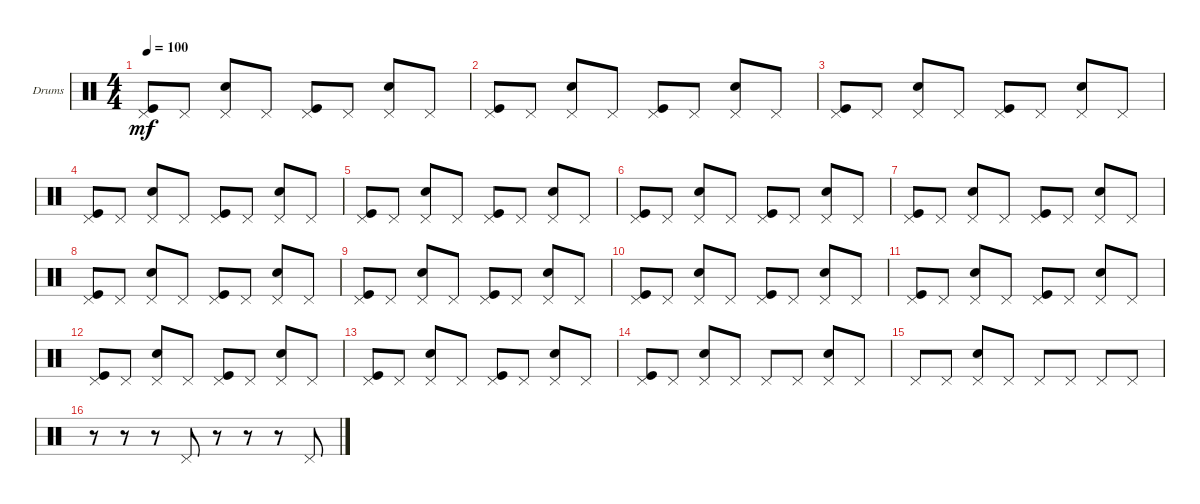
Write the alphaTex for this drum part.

\defaultSystemsLayout 4
\bracketExtendMode groupsimilarinstruments
\firstSystemTrackNameOrientation horizontal
\otherSystemsTrackNameOrientation horizontal
\track ("Drumkit" "Drums") {instrument percussion}
\staff {score}
\articulation defaults
\ts (4 4)
\tempo 100
\clef neutral
\ks c
("Pedal Hi-Hat (hit)" "Kick (hit)").8{dy mf} "Pedal Hi-Hat (hit)".8 ("Snare (hit) 2" "Pedal Hi-Hat (hit)").8 "Pedal Hi-Hat (hit)".8 ("Pedal Hi-Hat (hit)" "Kick (hit)").8 "Pedal Hi-Hat (hit)".8 ("Snare (hit) 2" "Pedal Hi-Hat (hit)").8 "Pedal Hi-Hat (hit)".8 |
("Pedal Hi-Hat (hit)" "Kick (hit)").8 "Pedal Hi-Hat (hit)".8 ("Snare (hit) 2" "Pedal Hi-Hat (hit)").8 "Pedal Hi-Hat (hit)".8 ("Pedal Hi-Hat (hit)" "Kick (hit)").8 "Pedal Hi-Hat (hit)".8 ("Snare (hit) 2" "Pedal Hi-Hat (hit)").8 "Pedal Hi-Hat (hit)".8 |
("Pedal Hi-Hat (hit)" "Kick (hit)").8 "Pedal Hi-Hat (hit)".8 ("Snare (hit) 2" "Pedal Hi-Hat (hit)").8 "Pedal Hi-Hat (hit)".8 ("Pedal Hi-Hat (hit)" "Kick (hit)").8 "Pedal Hi-Hat (hit)".8 ("Snare (hit) 2" "Pedal Hi-Hat (hit)").8 "Pedal Hi-Hat (hit)".8 |
("Pedal Hi-Hat (hit)" "Kick (hit)").8 "Pedal Hi-Hat (hit)".8 ("Snare (hit) 2" "Pedal Hi-Hat (hit)").8 "Pedal Hi-Hat (hit)".8 ("Pedal Hi-Hat (hit)" "Kick (hit)").8 "Pedal Hi-Hat (hit)".8 ("Snare (hit) 2" "Pedal Hi-Hat (hit)").8 "Pedal Hi-Hat (hit)".8 |
("Pedal Hi-Hat (hit)" "Kick (hit)").8 "Pedal Hi-Hat (hit)".8 ("Snare (hit) 2" "Pedal Hi-Hat (hit)").8 "Pedal Hi-Hat (hit)".8 ("Pedal Hi-Hat (hit)" "Kick (hit)").8 "Pedal Hi-Hat (hit)".8 ("Snare (hit) 2" "Pedal Hi-Hat (hit)").8 "Pedal Hi-Hat (hit)".8 |
("Pedal Hi-Hat (hit)" "Kick (hit)").8 "Pedal Hi-Hat (hit)".8 ("Snare (hit) 2" "Pedal Hi-Hat (hit)").8 "Pedal Hi-Hat (hit)".8 ("Pedal Hi-Hat (hit)" "Kick (hit)").8 "Pedal Hi-Hat (hit)".8 ("Snare (hit) 2" "Pedal Hi-Hat (hit)").8 "Pedal Hi-Hat (hit)".8 |
("Pedal Hi-Hat (hit)" "Kick (hit)").8 "Pedal Hi-Hat (hit)".8 ("Snare (hit) 2" "Pedal Hi-Hat (hit)").8 "Pedal Hi-Hat (hit)".8 ("Pedal Hi-Hat (hit)" "Kick (hit)").8 "Pedal Hi-Hat (hit)".8 ("Snare (hit) 2" "Pedal Hi-Hat (hit)").8 "Pedal Hi-Hat (hit)".8 |
("Pedal Hi-Hat (hit)" "Kick (hit)").8 "Pedal Hi-Hat (hit)".8 ("Snare (hit) 2" "Pedal Hi-Hat (hit)").8 "Pedal Hi-Hat (hit)".8 ("Pedal Hi-Hat (hit)" "Kick (hit)").8 "Pedal Hi-Hat (hit)".8 ("Snare (hit) 2" "Pedal Hi-Hat (hit)").8 "Pedal Hi-Hat (hit)".8 |
("Pedal Hi-Hat (hit)" "Kick (hit)").8 "Pedal Hi-Hat (hit)".8 ("Snare (hit) 2" "Pedal Hi-Hat (hit)").8 "Pedal Hi-Hat (hit)".8 ("Pedal Hi-Hat (hit)" "Kick (hit)").8 "Pedal Hi-Hat (hit)".8 ("Snare (hit) 2" "Pedal Hi-Hat (hit)").8 "Pedal Hi-Hat (hit)".8 |
("Pedal Hi-Hat (hit)" "Kick (hit)").8 "Pedal Hi-Hat (hit)".8 ("Snare (hit) 2" "Pedal Hi-Hat (hit)").8 "Pedal Hi-Hat (hit)".8 ("Pedal Hi-Hat (hit)" "Kick (hit)").8 "Pedal Hi-Hat (hit)".8 ("Snare (hit) 2" "Pedal Hi-Hat (hit)").8 "Pedal Hi-Hat (hit)".8 |
("Pedal Hi-Hat (hit)" "Kick (hit)").8 "Pedal Hi-Hat (hit)".8 ("Snare (hit) 2" "Pedal Hi-Hat (hit)").8 "Pedal Hi-Hat (hit)".8 ("Pedal Hi-Hat (hit)" "Kick (hit)").8 "Pedal Hi-Hat (hit)".8 ("Snare (hit) 2" "Pedal Hi-Hat (hit)").8 "Pedal Hi-Hat (hit)".8 |
("Pedal Hi-Hat (hit)" "Kick (hit)").8 "Pedal Hi-Hat (hit)".8 ("Snare (hit) 2" "Pedal Hi-Hat (hit)").8 "Pedal Hi-Hat (hit)".8 ("Pedal Hi-Hat (hit)" "Kick (hit)").8 "Pedal Hi-Hat (hit)".8 ("Snare (hit) 2" "Pedal Hi-Hat (hit)").8 "Pedal Hi-Hat (hit)".8 |
("Pedal Hi-Hat (hit)" "Kick (hit)").8 "Pedal Hi-Hat (hit)".8 ("Snare (hit) 2" "Pedal Hi-Hat (hit)").8 "Pedal Hi-Hat (hit)".8 ("Pedal Hi-Hat (hit)" "Kick (hit)").8 "Pedal Hi-Hat (hit)".8 ("Snare (hit) 2" "Pedal Hi-Hat (hit)").8 "Pedal Hi-Hat (hit)".8 |
("Pedal Hi-Hat (hit)" "Kick (hit)").8 "Pedal Hi-Hat (hit)".8 ("Pedal Hi-Hat (hit)" "Snare (hit) 2").8 "Pedal Hi-Hat (hit)".8 "Pedal Hi-Hat (hit)".8 "Pedal Hi-Hat (hit)".8 ("Pedal Hi-Hat (hit)" "Snare (hit) 2").8 "Pedal Hi-Hat (hit)".8 |
"Pedal Hi-Hat (hit)".8 "Pedal Hi-Hat (hit)".8 ("Pedal Hi-Hat (hit)" "Snare (hit) 2").8 "Pedal Hi-Hat (hit)".8 "Pedal Hi-Hat (hit)".8 "Pedal Hi-Hat (hit)".8 "Pedal Hi-Hat (hit)".8 "Pedal Hi-Hat (hit)".8 |
r.8 r.8 r.8 "Pedal Hi-Hat (hit)".8 r.8 r.8 r.8 "Pedal Hi-Hat (hit)".8
